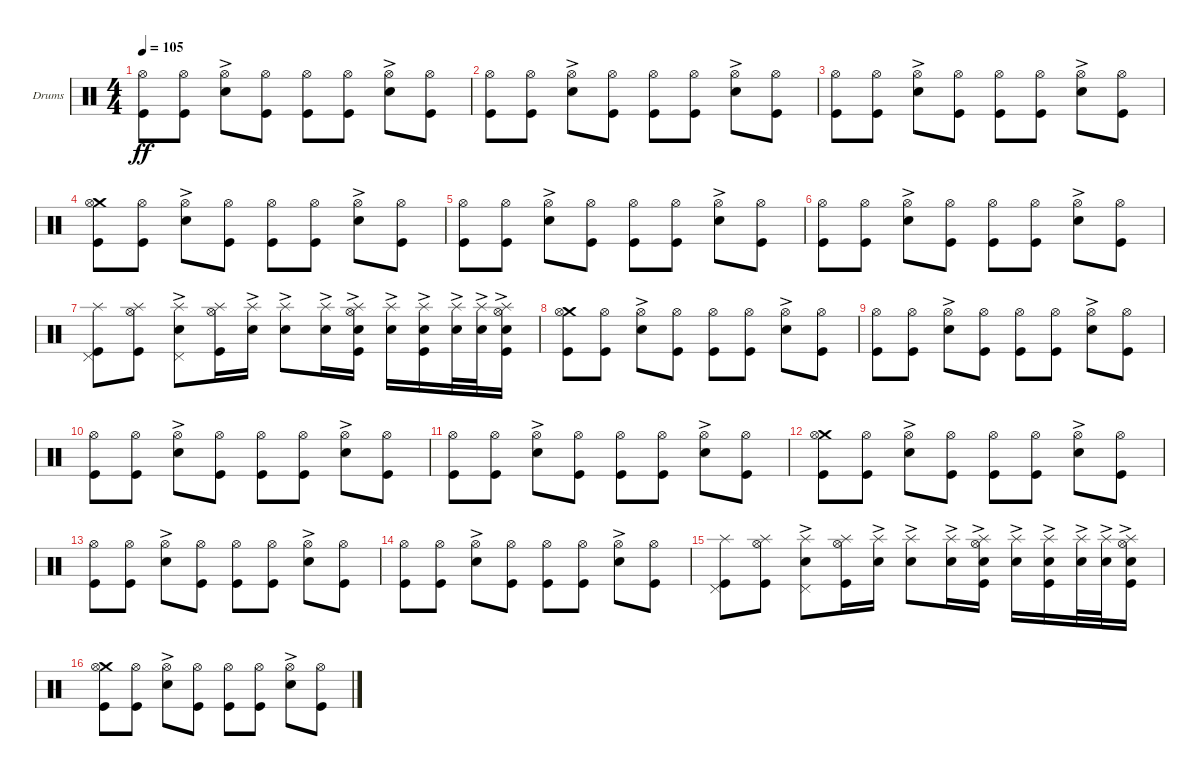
\bracketExtendMode groupsimilarinstruments
\firstSystemTrackNameOrientation horizontal
\otherSystemsTrackNameOrientation horizontal
\track ("Drumkit" "Drums") {instrument percussion}
\staff {score}
\articulation defaults
\ts (4 4)
\tempo 105
\clef neutral
\ks c
("Kick (hit)" "Hi-Hat (open)").8{dy ff} ("Kick (hit)" "Hi-Hat (open)").8 ("Snare (hit) 2"{ac} "Hi-Hat (open)").8 ("Kick (hit)" "Hi-Hat (open)").8 ("Kick (hit)" "Hi-Hat (open)").8 ("Kick (hit)" "Hi-Hat (open)").8 ("Snare (hit) 2"{ac} "Hi-Hat (open)").8 ("Kick (hit)" "Hi-Hat (open)").8 |
("Kick (hit)" "Hi-Hat (open)").8 ("Kick (hit)" "Hi-Hat (open)").8 ("Snare (hit) 2"{ac} "Hi-Hat (open)").8 ("Kick (hit)" "Hi-Hat (open)").8 ("Kick (hit)" "Hi-Hat (open)").8 ("Kick (hit)" "Hi-Hat (open)").8 ("Snare (hit) 2"{ac} "Hi-Hat (open)").8 ("Kick (hit)" "Hi-Hat (open)").8 |
("Kick (hit)" "Hi-Hat (open)").8 ("Kick (hit)" "Hi-Hat (open)").8 ("Snare (hit) 2"{ac} "Hi-Hat (open)").8 ("Kick (hit)" "Hi-Hat (open)").8 ("Kick (hit)" "Hi-Hat (open)").8 ("Kick (hit)" "Hi-Hat (open)").8 ("Snare (hit) 2"{ac} "Hi-Hat (open)").8 ("Kick (hit)" "Hi-Hat (open)").8 |
("Kick (hit)" "Crash medium (hit)" "Hi-Hat (open)").8 ("Kick (hit)" "Hi-Hat (open)").8 ("Snare (hit) 2"{ac} "Hi-Hat (open)").8 ("Kick (hit)" "Hi-Hat (open)").8 ("Kick (hit)" "Hi-Hat (open)").8 ("Kick (hit)" "Hi-Hat (open)").8 ("Snare (hit) 2"{ac} "Hi-Hat (open)").8 ("Kick (hit)" "Hi-Hat (open)").8 |
("Kick (hit)" "Hi-Hat (open)").8 ("Kick (hit)" "Hi-Hat (open)").8 ("Snare (hit) 2"{ac} "Hi-Hat (open)").8 ("Kick (hit)" "Hi-Hat (open)").8 ("Kick (hit)" "Hi-Hat (open)").8 ("Kick (hit)" "Hi-Hat (open)").8 ("Snare (hit) 2"{ac} "Hi-Hat (open)").8 ("Kick (hit)" "Hi-Hat (open)").8 |
("Kick (hit)" "Hi-Hat (open)").8 ("Kick (hit)" "Hi-Hat (open)").8 ("Snare (hit) 2"{ac} "Hi-Hat (open)").8 ("Kick (hit)" "Hi-Hat (open)").8 ("Kick (hit)" "Hi-Hat (open)").8 ("Kick (hit)" "Hi-Hat (open)").8 ("Snare (hit) 2"{ac} "Hi-Hat (open)").8 ("Kick (hit)" "Hi-Hat (open)").8 |
("Kick (hit)" "Pedal Hi-Hat (hit)" "Splash (hit)").8 ("Kick (hit)" "Hi-Hat (open)" "Splash (hit)").8 ("Pedal Hi-Hat (hit)" "Snare (hit) 2"{ac} "Splash (hit)").8 ("Kick (hit)" "Hi-Hat (open)" "Splash (hit)").16 ("Snare (hit) 2"{ac} "Splash (hit)").16 ("Snare (hit) 2"{ac} "Splash (hit)").8 ("Snare (hit) 2"{ac} "Splash (hit)").16 ("Kick (hit)" "Hi-Hat (open)" "Splash (hit)" "Snare (hit) 2"{ac}).16 ("Snare (hit) 2"{ac} "Splash (hit)").16 ("Kick (hit)" "Splash (hit)" "Snare (hit) 2"{ac}).16 ("Snare (hit) 2"{ac} "Splash (hit)").32 ("Snare (hit) 2"{ac} "Splash (hit)").32 ("Kick (hit)" "Hi-Hat (open)" "Splash (hit)" "Snare (hit) 2"{ac}).16 |
("Kick (hit)" "Crash medium (hit)" "Hi-Hat (open)").8 ("Kick (hit)" "Hi-Hat (open)").8 ("Snare (hit) 2"{ac} "Hi-Hat (open)").8 ("Kick (hit)" "Hi-Hat (open)").8 ("Kick (hit)" "Hi-Hat (open)").8 ("Kick (hit)" "Hi-Hat (open)").8 ("Snare (hit) 2"{ac} "Hi-Hat (open)").8 ("Kick (hit)" "Hi-Hat (open)").8 |
("Kick (hit)" "Hi-Hat (open)").8 ("Kick (hit)" "Hi-Hat (open)").8 ("Snare (hit) 2"{ac} "Hi-Hat (open)").8 ("Kick (hit)" "Hi-Hat (open)").8 ("Kick (hit)" "Hi-Hat (open)").8 ("Kick (hit)" "Hi-Hat (open)").8 ("Snare (hit) 2"{ac} "Hi-Hat (open)").8 ("Kick (hit)" "Hi-Hat (open)").8 |
("Kick (hit)" "Hi-Hat (open)").8 ("Kick (hit)" "Hi-Hat (open)").8 ("Snare (hit) 2"{ac} "Hi-Hat (open)").8 ("Kick (hit)" "Hi-Hat (open)").8 ("Kick (hit)" "Hi-Hat (open)").8 ("Kick (hit)" "Hi-Hat (open)").8 ("Snare (hit) 2"{ac} "Hi-Hat (open)").8 ("Kick (hit)" "Hi-Hat (open)").8 |
("Kick (hit)" "Hi-Hat (open)").8 ("Kick (hit)" "Hi-Hat (open)").8 ("Snare (hit) 2"{ac} "Hi-Hat (open)").8 ("Kick (hit)" "Hi-Hat (open)").8 ("Kick (hit)" "Hi-Hat (open)").8 ("Kick (hit)" "Hi-Hat (open)").8 ("Snare (hit) 2"{ac} "Hi-Hat (open)").8 ("Kick (hit)" "Hi-Hat (open)").8 |
("Kick (hit)" "Crash medium (hit)" "Hi-Hat (open)").8 ("Kick (hit)" "Hi-Hat (open)").8 ("Snare (hit) 2"{ac} "Hi-Hat (open)").8 ("Kick (hit)" "Hi-Hat (open)").8 ("Kick (hit)" "Hi-Hat (open)").8 ("Kick (hit)" "Hi-Hat (open)").8 ("Snare (hit) 2"{ac} "Hi-Hat (open)").8 ("Kick (hit)" "Hi-Hat (open)").8 |
("Kick (hit)" "Hi-Hat (open)").8 ("Kick (hit)" "Hi-Hat (open)").8 ("Snare (hit) 2"{ac} "Hi-Hat (open)").8 ("Kick (hit)" "Hi-Hat (open)").8 ("Kick (hit)" "Hi-Hat (open)").8 ("Kick (hit)" "Hi-Hat (open)").8 ("Snare (hit) 2"{ac} "Hi-Hat (open)").8 ("Kick (hit)" "Hi-Hat (open)").8 |
("Kick (hit)" "Hi-Hat (open)").8 ("Kick (hit)" "Hi-Hat (open)").8 ("Snare (hit) 2"{ac} "Hi-Hat (open)").8 ("Kick (hit)" "Hi-Hat (open)").8 ("Kick (hit)" "Hi-Hat (open)").8 ("Kick (hit)" "Hi-Hat (open)").8 ("Snare (hit) 2"{ac} "Hi-Hat (open)").8 ("Kick (hit)" "Hi-Hat (open)").8 |
("Kick (hit)" "Pedal Hi-Hat (hit)" "Splash (hit)").8 ("Kick (hit)" "Hi-Hat (open)" "Splash (hit)").8 ("Pedal Hi-Hat (hit)" "Snare (hit) 2"{ac} "Splash (hit)").8 ("Kick (hit)" "Hi-Hat (open)" "Splash (hit)").16 ("Snare (hit) 2"{ac} "Splash (hit)").16 ("Snare (hit) 2"{ac} "Splash (hit)").8 ("Snare (hit) 2"{ac} "Splash (hit)").16 ("Kick (hit)" "Hi-Hat (open)" "Splash (hit)" "Snare (hit) 2"{ac}).16 ("Snare (hit) 2"{ac} "Splash (hit)").16 ("Kick (hit)" "Splash (hit)" "Snare (hit) 2"{ac}).16 ("Snare (hit) 2"{ac} "Splash (hit)").32 ("Snare (hit) 2"{ac} "Splash (hit)").32 ("Kick (hit)" "Hi-Hat (open)" "Splash (hit)" "Snare (hit) 2"{ac}).16 |
("Kick (hit)" "Crash medium (hit)" "Hi-Hat (open)").8 ("Kick (hit)" "Hi-Hat (open)").8 ("Snare (hit) 2"{ac} "Hi-Hat (open)").8 ("Kick (hit)" "Hi-Hat (open)").8 ("Kick (hit)" "Hi-Hat (open)").8 ("Kick (hit)" "Hi-Hat (open)").8 ("Snare (hit) 2"{ac} "Hi-Hat (open)").8 ("Kick (hit)" "Hi-Hat (open)").8
